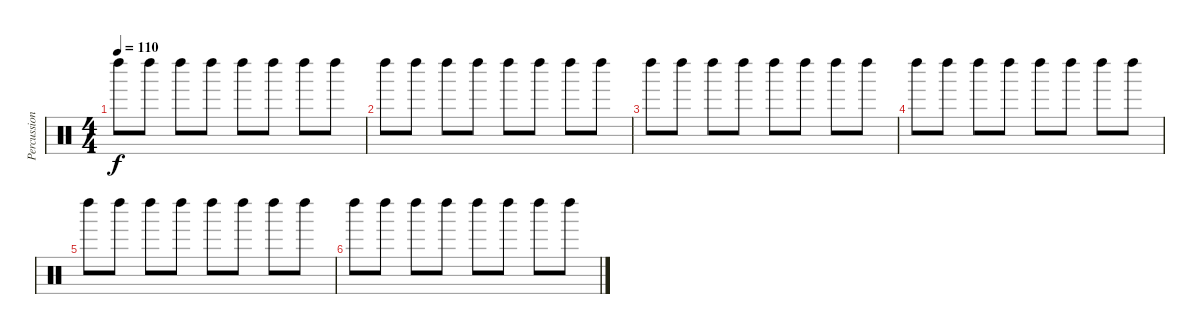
\track ("Percussions" "Percussion") {instrument percussion}
\staff {score}
\articulation defaults
\ts (4 4)
\tempo 110
\clef neutral
\ks c "Left Maraca (hit)".8{dy f} "Left Maraca (hit)".8 "Left Maraca (hit)".8 "Left Maraca (hit)".8 "Left Maraca (hit)".8 "Left Maraca (hit)".8 "Left Maraca (hit)".8 "Left Maraca (hit)".8
|
"Left Maraca (hit)".8 "Left Maraca (hit)".8 "Left Maraca (hit)".8 "Left Maraca (hit)".8 "Left Maraca (hit)".8 "Left Maraca (hit)".8 "Left Maraca (hit)".8 "Left Maraca (hit)".8 |
"Left Maraca (hit)".8 "Left Maraca (hit)".8 "Left Maraca (hit)".8 "Left Maraca (hit)".8 "Left Maraca (hit)".8 "Left Maraca (hit)".8 "Left Maraca (hit)".8 "Left Maraca (hit)".8 |
"Left Maraca (hit)".8 "Left Maraca (hit)".8 "Left Maraca (hit)".8 "Left Maraca (hit)".8 "Left Maraca (hit)".8 "Left Maraca (hit)".8 "Left Maraca (hit)".8 "Left Maraca (hit)".8 |
"Left Maraca (hit)".8 "Left Maraca (hit)".8 "Left Maraca (hit)".8 "Left Maraca (hit)".8 "Left Maraca (hit)".8 "Left Maraca (hit)".8 "Left Maraca (hit)".8 "Left Maraca (hit)".8 |
"Left Maraca (hit)".8 "Left Maraca (hit)".8 "Left Maraca (hit)".8 "Left Maraca (hit)".8 "Left Maraca (hit)".8 "Left Maraca (hit)".8 "Left Maraca (hit)".8 "Left Maraca (hit)".8
